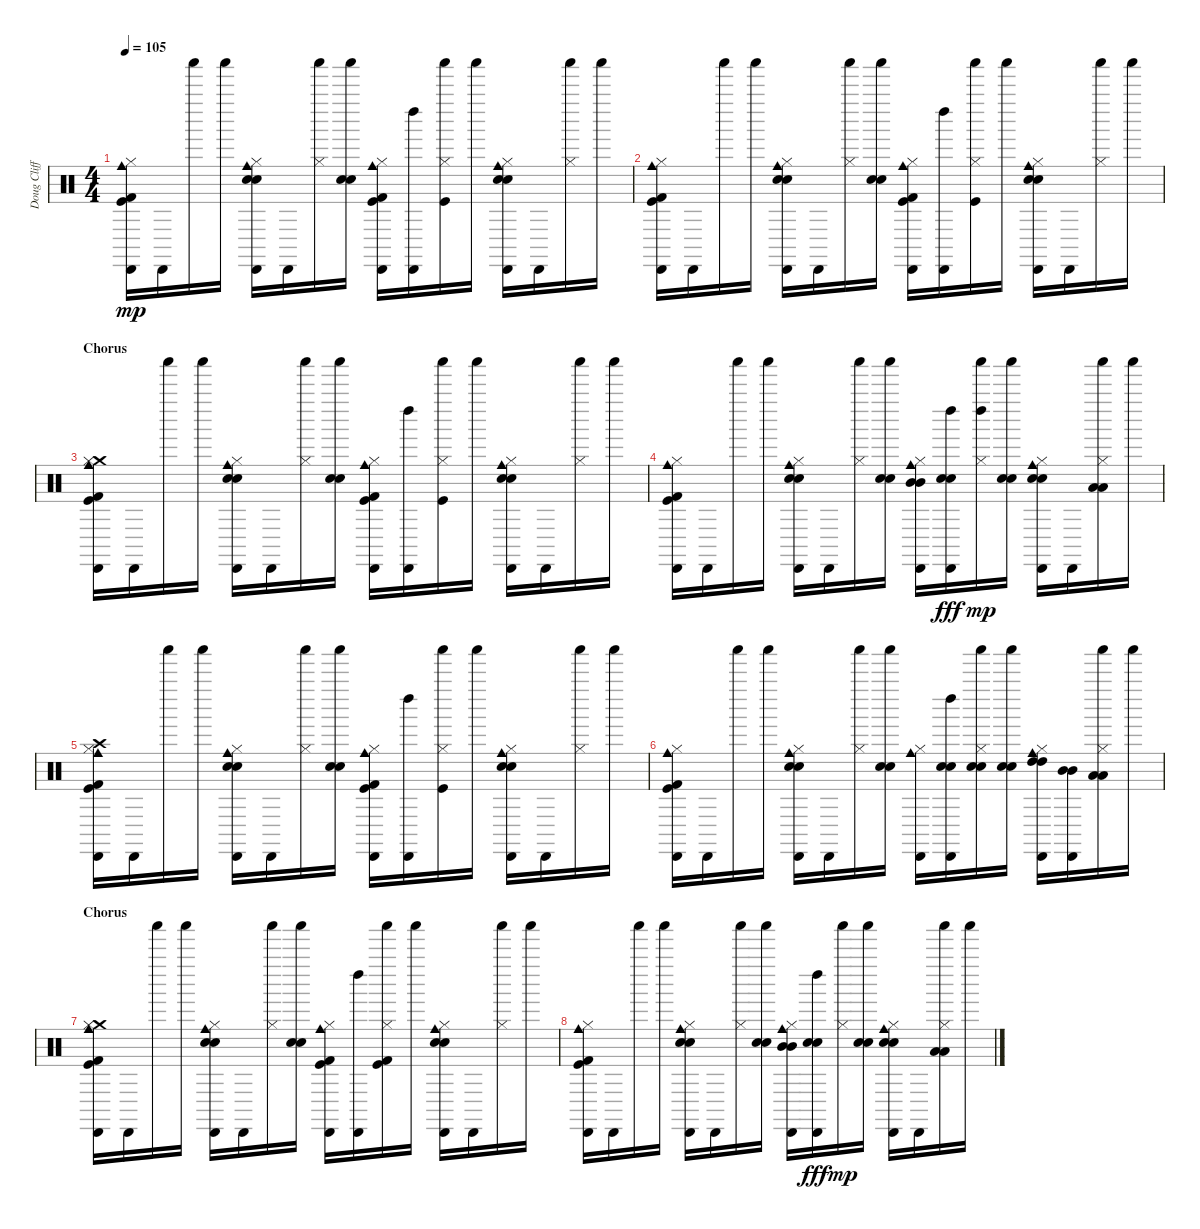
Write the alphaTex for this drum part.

\track ("Doug Clifford" "Doug Cliff") {instrument percussion}
\staff {score}
\articulation defaults
\ts (4 4)
\tempo 105
\clef neutral
\ks c
("Kick (hit) 2" "Cabasa (hit)" "Kick (hit)" "Cowbell medium (hit)" "Hi-Hat (closed)").16{dy mp} "Cabasa (hit)".16 "Shaker (hit)".16 "Shaker (hit)".16 ("Snare (hit) 2" "Electric Snare (hit)" "Cowbell medium (hit)" "Cabasa (hit)" "Hi-Hat (closed)").16 "Cabasa (hit)".16 ("Shaker (hit)" "Hi-Hat (closed)").16 ("Snare (hit) 2" "Shaker (hit)" "Electric Snare (hit)").16 ("Kick (hit) 2" "Cowbell medium (hit)" "Cabasa (hit)" "Hi-Hat (closed)" "Kick (hit)").16 ("Left Maraca (hit)" "Cabasa (hit)").16 ("Kick (hit)" "Shaker (hit)" "Hi-Hat (closed)").16 "Shaker (hit)".16 ("Snare (hit) 2" "Cowbell medium (hit)" "Electric Snare (hit)" "Cabasa (hit)" "Hi-Hat (closed)").16 "Cabasa (hit)".16 ("Hi-Hat (closed)" "Shaker (hit)").16 "Shaker (hit)".16 |
("Kick (hit) 2" "Cabasa (hit)" "Kick (hit)" "Cowbell medium (hit)" "Hi-Hat (closed)").16 "Cabasa (hit)".16 "Shaker (hit)".16 "Shaker (hit)".16 ("Snare (hit) 2" "Cowbell medium (hit)" "Cabasa (hit)" "Electric Snare (hit)" "Hi-Hat (closed)").16 "Cabasa (hit)".16 ("Shaker (hit)" "Hi-Hat (closed)").16 ("Snare (hit) 2" "Shaker (hit)" "Electric Snare (hit)").16 ("Kick (hit) 2" "Cabasa (hit)" "Cowbell medium (hit)" "Hi-Hat (closed)" "Kick (hit)").16 ("Left Maraca (hit)" "Cabasa (hit)").16 ("Shaker (hit)" "Kick (hit)" "Hi-Hat (closed)").16 "Shaker (hit)".16 ("Snare (hit) 2" "Cowbell medium (hit)" "Electric Snare (hit)" "Cabasa (hit)" "Hi-Hat (closed)").16 "Cabasa (hit)".16 ("Hi-Hat (closed)" "Shaker (hit)").16 "Shaker (hit)".16 |
\section ("" "Chorus")
("Kick (hit) 2" "Crash medium (hit)" "Cabasa (hit)" "Kick (hit)" "Cowbell medium (hit)" "Hi-Hat (closed)").16 "Cabasa (hit)".16 "Shaker (hit)".16 "Shaker (hit)".16 ("Snare (hit) 2" "Cabasa (hit)" "Cowbell medium (hit)" "Electric Snare (hit)" "Hi-Hat (closed)").16 "Cabasa (hit)".16 ("Hi-Hat (closed)" "Shaker (hit)").16 ("Snare (hit) 2" "Shaker (hit)" "Electric Snare (hit)").16 ("Kick (hit) 2" "Kick (hit)" "Cowbell medium (hit)" "Hi-Hat (closed)" "Cabasa (hit)").16 ("Left Maraca (hit)" "Cabasa (hit)").16 ("Shaker (hit)" "Kick (hit)" "Hi-Hat (closed)").16 "Shaker (hit)".16 ("Snare (hit) 2" "Electric Snare (hit)" "Cowbell medium (hit)" "Cabasa (hit)" "Hi-Hat (closed)").16 "Cabasa (hit)".16 ("Shaker (hit)" "Hi-Hat (closed)").16 "Shaker (hit)".16 |
("Kick (hit) 2" "Kick (hit)" "Cowbell medium (hit)" "Cabasa (hit)" "Hi-Hat (closed)").16 "Cabasa (hit)".16 "Shaker (hit)".16 "Shaker (hit)".16 ("Snare (hit) 2" "Electric Snare (hit)" "Hi-Hat (closed)" "Cowbell medium (hit)" "Cabasa (hit)").16 "Cabasa (hit)".16 ("Hi-Hat (closed)" "Shaker (hit)").16 ("Snare (hit) 2" "Electric Snare (hit)" "Shaker (hit)").16 ("Mid Tom (hit)" "Mid Tom (hit)" "Cabasa (hit)" "Cowbell medium (hit)" "Hi-Hat (closed)").16 ("Left Maraca (hit)" "Electric Snare (hit)" "Cabasa (hit)" "Snare (hit) 2").16{dy fff} ("Left Maraca (hit)" "Hi-Hat (closed)" "Shaker (hit)").16{dy mp} ("Snare (hit) 2" "Shaker (hit)" "Electric Snare (hit)").16 ("Snare (hit) 2" "Hi-Hat (closed)" "Cowbell medium (hit)" "Electric Snare (hit)" "Cabasa (hit)").16 "Cabasa (hit)".16 ("Low Tom (hit)" "Low Tom (hit)" "Shaker (hit)" "Hi-Hat (closed)").16 "Shaker (hit)".16 |
("Kick (hit) 2" "Crash high (hit)" "Cowbell medium (hit)" "Kick (hit)" "Cabasa (hit)" "Hi-Hat (closed)").16 "Cabasa (hit)".16 "Shaker (hit)".16 "Shaker (hit)".16 ("Snare (hit) 2" "Cowbell medium (hit)" "Electric Snare (hit)" "Cabasa (hit)" "Hi-Hat (closed)").16 "Cabasa (hit)".16 ("Hi-Hat (closed)" "Shaker (hit)").16 ("Snare (hit) 2" "Electric Snare (hit)" "Shaker (hit)").16 ("Kick (hit) 2" "Cabasa (hit)" "Cowbell medium (hit)" "Kick (hit)" "Hi-Hat (closed)").16 ("Left Maraca (hit)" "Cabasa (hit)").16 ("Hi-Hat (closed)" "Shaker (hit)" "Kick (hit)").16 "Shaker (hit)".16 ("Snare (hit) 2" "Electric Snare (hit)" "Cabasa (hit)" "Cowbell medium (hit)" "Hi-Hat (closed)").16 "Cabasa (hit)".16 ("Hi-Hat (closed)" "Shaker (hit)").16 "Shaker (hit)".16 |
("Kick (hit) 2" "Kick (hit)" "Cabasa (hit)" "Hi-Hat (closed)" "Cowbell medium (hit)").16 "Cabasa (hit)".16 "Shaker (hit)".16 "Shaker (hit)".16 ("Snare (hit) 2" "Hi-Hat (closed)" "Cowbell medium (hit)" "Electric Snare (hit)" "Cabasa (hit)").16 "Cabasa (hit)".16 ("Shaker (hit)" "Hi-Hat (closed)").16 ("Snare (hit) 2" "Shaker (hit)" "Electric Snare (hit)").16 ("Hi-Hat (closed)" "Cabasa (hit)" "Cowbell medium (hit)").16 ("Snare (hit) 2" "Left Maraca (hit)" "Cabasa (hit)" "Electric Snare (hit)").16 ("Snare (hit) 2" "Electric Snare (hit)" "Shaker (hit)" "Hi-Hat (closed)").16 ("Snare (hit) 2" "Shaker (hit)" "Electric Snare (hit)").16 ("High Tom (hit)" "Cabasa (hit)" "High Tom (hit)" "Cowbell medium (hit)" "Hi-Hat (closed)").16 ("Mid Tom (hit)" "Cabasa (hit)" "Mid Tom (hit)").16 ("Low Tom (hit)" "Shaker (hit)" "Low Tom (hit)" "Hi-Hat (closed)").16 "Shaker (hit)".16 |
\section ("" "Chorus")
("Kick (hit) 2" "Crash medium (hit)" "Kick (hit)" "Cabasa (hit)" "Cowbell medium (hit)" "Hi-Hat (closed)").16{volume 10} "Cabasa (hit)".16 "Shaker (hit)".16 "Shaker (hit)".16 ("Snare (hit) 2" "Cabasa (hit)" "Cowbell medium (hit)" "Electric Snare (hit)" "Hi-Hat (closed)").16 "Cabasa (hit)".16 ("Hi-Hat (closed)" "Shaker (hit)").16 ("Snare (hit) 2" "Shaker (hit)" "Electric Snare (hit)").16 ("Kick (hit) 2" "Kick (hit)" "Cowbell medium (hit)" "Hi-Hat (closed)" "Cabasa (hit)").16 ("Left Maraca (hit)" "Cabasa (hit)").16 ("Kick (hit) 2" "Shaker (hit)" "Hi-Hat (closed)" "Kick (hit)").16 "Shaker (hit)".16 ("Snare (hit) 2" "Electric Snare (hit)" "Cowbell medium (hit)" "Cabasa (hit)" "Hi-Hat (closed)").16 "Cabasa (hit)".16 ("Shaker (hit)" "Hi-Hat (closed)").16 "Shaker (hit)".16 |
("Kick (hit) 2" "Cowbell medium (hit)" "Hi-Hat (closed)" "Kick (hit)" "Cabasa (hit)").16 "Cabasa (hit)".16 "Shaker (hit)".16 "Shaker (hit)".16 ("Snare (hit) 2" "Hi-Hat (closed)" "Electric Snare (hit)" "Cowbell medium (hit)" "Cabasa (hit)").16 "Cabasa (hit)".16 ("Hi-Hat (closed)" "Shaker (hit)").16 ("Snare (hit) 2" "Electric Snare (hit)" "Shaker (hit)").16 ("Mid Tom (hit)" "Mid Tom (hit)" "Cabasa (hit)" "Hi-Hat (closed)" "Cowbell medium (hit)").16 ("Left Maraca (hit)" "Electric Snare (hit)" "Cabasa (hit)" "Snare (hit) 2").16{dy fff} ("Hi-Hat (closed)" "Shaker (hit)").16{dy mp} ("Snare (hit) 2" "Shaker (hit)" "Electric Snare (hit)").16 ("Snare (hit) 2" "Cowbell medium (hit)" "Hi-Hat (closed)" "Cabasa (hit)" "Electric Snare (hit)").16 "Cabasa (hit)".16 ("Low Tom (hit)" "Low Tom (hit)" "Shaker (hit)" "Hi-Hat (closed)").16 "Shaker (hit)".16
